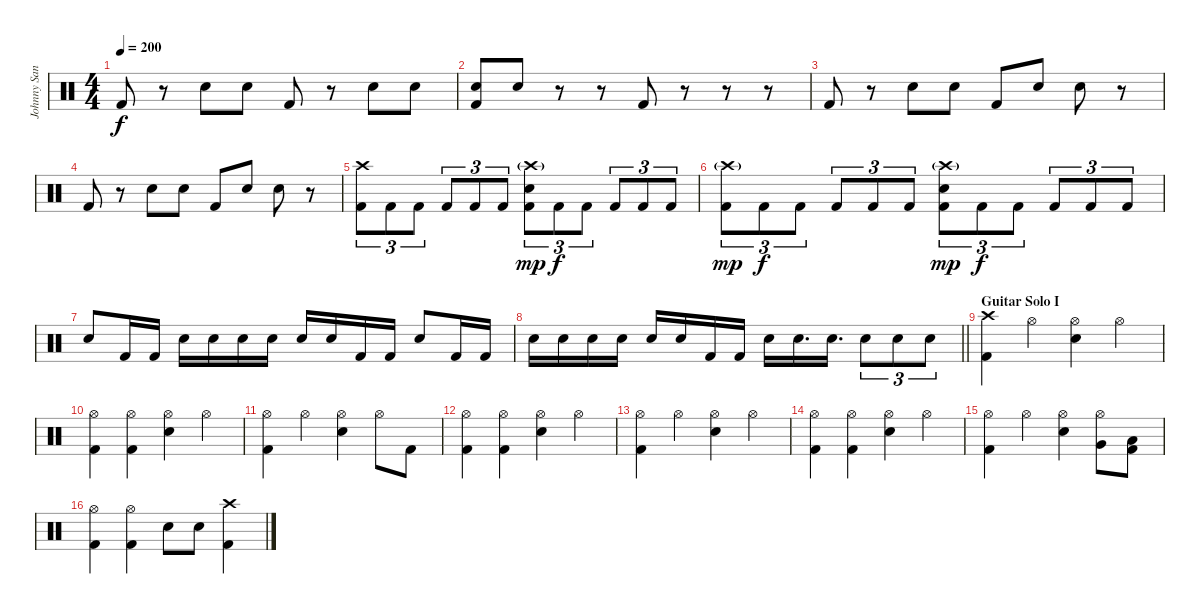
\track ("Johnny Sandin" "Johnny San") {instrument percussion}
\staff {score}
\articulation defaults
\ts (4 4)
\tempo 200
\clef neutral
\ks c "Kick (hit) 2".8{dy f}
r.8 "Snare (hit) 2".8 "Snare (hit) 2".8 "Kick (hit) 2".8 r.8 "Snare (hit) 2".8 "Snare (hit) 2".8 |
("Snare (hit) 2" "Kick (hit) 2").8 "Snare (hit) 2".8 r.8 r.8 "Kick (hit) 2".8 r.8 r.8 r.8 |
"Kick (hit) 2".8 r.8 "Snare (hit) 2".8 "Snare (hit) 2".8 "Kick (hit) 2".8 "Snare (hit) 2".8 "Snare (hit) 2".8 r.8 |
"Kick (hit) 2".8 r.8 "Snare (hit) 2".8 "Snare (hit) 2".8 "Kick (hit) 2".8 "Snare (hit) 2".8 "Snare (hit) 2".8 r.8 |
("Crash high (hit)" "Kick (hit) 2").8{tu (3 2)} "Kick (hit) 2".8{tu (3 2)} "Kick (hit) 2".8{tu (3 2)} "Kick (hit) 2".8{tu (3 2)} "Kick (hit) 2".8{tu (3 2)} "Kick (hit) 2".8{tu (3 2)} ("Crash high (hit)"{g} "Snare (hit) 2" "Kick (hit) 2").8{tu (3 2) dy mp} "Kick (hit) 2".8{tu (3 2) dy f} "Kick (hit) 2".8{tu (3 2)} "Kick (hit) 2".8{tu (3 2)} "Kick (hit) 2".8{tu (3 2)} "Kick (hit) 2".8{tu (3 2)} |
("Crash high (hit)"{g} "Kick (hit) 2").8{tu (3 2) dy mp} "Kick (hit) 2".8{tu (3 2) dy f} "Kick (hit) 2".8{tu (3 2)} "Kick (hit) 2".8{tu (3 2)} "Kick (hit) 2".8{tu (3 2)} "Kick (hit) 2".8{tu (3 2)} ("Crash high (hit)"{g} "Snare (hit) 2" "Kick (hit) 2").8{tu (3 2) dy mp} "Kick (hit) 2".8{tu (3 2) dy f} "Kick (hit) 2".8{tu (3 2)} "Kick (hit) 2".8{tu (3 2)} "Kick (hit) 2".8{tu (3 2)} "Kick (hit) 2".8{tu (3 2)} |
"Snare (hit) 2".8 "Kick (hit) 2".16 "Kick (hit) 2".16 "Snare (hit) 2".16 "Snare (hit) 2".16 "Snare (hit) 2".16 "Snare (hit) 2".16 "Snare (hit) 2".16 "Snare (hit) 2".16 "Kick (hit) 2".16 "Kick (hit) 2".16 "Snare (hit) 2".8 "Kick (hit) 2".16 "Kick (hit) 2".16 |
\barLineRight lightlight "Snare (hit) 2".16 "Snare (hit) 2".16 "Snare (hit) 2".16 "Snare (hit) 2".16 "Snare (hit) 2".16 "Snare (hit) 2".16 "Kick (hit) 2".16 "Kick (hit) 2".16 "Snare (hit) 2".16 "Snare (hit) 2".16{d} "Snare (hit) 2".16{d} "Snare (hit) 2".8{tu (3 2)} "Snare (hit) 2".8{tu (3 2)} "Snare (hit) 2".8{tu (3 2)}
|
\section ("" "Guitar Solo I")
("Crash high (hit)" "Kick (hit) 2").4 "Hi-Hat (open)".4 ("Hi-Hat (open)" "Snare (hit) 2").4 "Hi-Hat (open)".4 |
("Hi-Hat (open)" "Kick (hit) 2").4 ("Hi-Hat (open)" "Kick (hit) 2").4 ("Hi-Hat (open)" "Snare (hit) 2").4 "Hi-Hat (open)".4 |
("Hi-Hat (open)" "Kick (hit) 2").4 "Hi-Hat (open)".4 ("Hi-Hat (open)" "Snare (hit) 2").4 "Hi-Hat (open)".8 "Kick (hit) 2".8 |
("Hi-Hat (open)" "Kick (hit) 2").4 ("Hi-Hat (open)" "Kick (hit) 2").4 ("Hi-Hat (open)" "Snare (hit) 2").4 "Hi-Hat (open)".4 |
("Hi-Hat (open)" "Kick (hit) 2").4 "Hi-Hat (open)".4 ("Hi-Hat (open)" "Snare (hit) 2").4 "Hi-Hat (open)".4 |
("Hi-Hat (open)" "Kick (hit) 2").4 ("Hi-Hat (open)" "Kick (hit) 2").4 ("Hi-Hat (open)" "Snare (hit) 2").4 "Hi-Hat (open)".4 |
("Hi-Hat (open)" "Kick (hit) 2").4 "Hi-Hat (open)".4 ("Hi-Hat (open)" "Snare (hit) 2").4 ("Hi-Hat (open)" "Very Low Tom (hit)").8 ("Low Floor Tom (hit)" "Kick (hit) 2").8 |
("Hi-Hat (open)" "Kick (hit) 2").4 ("Hi-Hat (open)" "Kick (hit) 2").4 "Snare (hit) 2".8 "Snare (hit) 2".8 ("Crash high (hit)" "Kick (hit) 2").4
